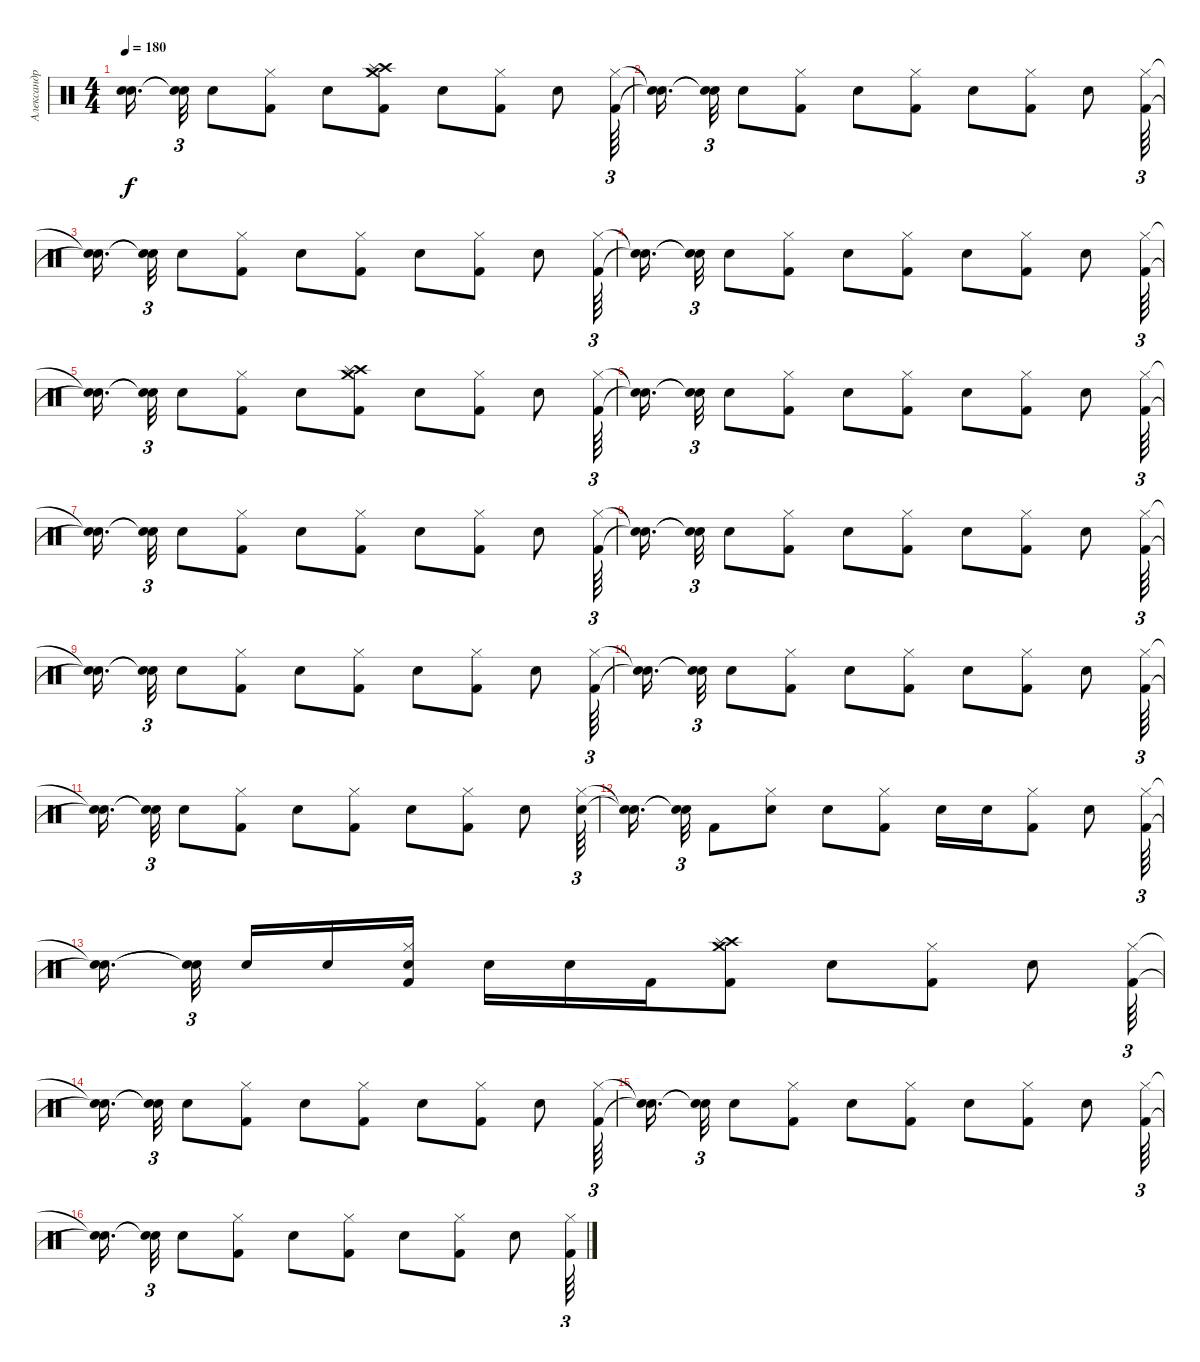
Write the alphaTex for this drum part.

\track ("Александр Карпухин" "Александр ") {instrument percussion}
\staff {score}
\articulation defaults
\ts (4 4)
\tempo 180
\clef neutral
\ks c
("Snare (hit)"{t} "Snare (hit)"{t}).16{d dy f beam splitsecondary} ("Snare (hit)"{t} "Snare (hit)"{t}).32{tu (3 2)} "Snare (hit) 2".8 ("Hi-Hat (closed)" "Kick (hit) 2").8 "Snare (hit) 2".8 ("Crash high (hit)" "Crash medium (hit)" "Splash (hit)" "Kick (hit) 2").8 "Snare (hit) 2".8 ("Hi-Hat (closed)" "Kick (hit) 2").8 "Snare (hit) 2".8 ("Hi-Hat (closed)" "Kick (hit) 2").64{tu (3 2)} |
("Snare (hit)"{t} "Snare (hit)"{t}).16{d beam splitsecondary} ("Snare (hit)"{t} "Snare (hit)"{t}).32{tu (3 2)} "Snare (hit) 2".8 ("Hi-Hat (closed)" "Kick (hit) 2").8 "Snare (hit) 2".8 ("Hi-Hat (closed)" "Kick (hit) 2").8 "Snare (hit) 2".8 ("Hi-Hat (closed)" "Kick (hit) 2").8 "Snare (hit) 2".8 ("Hi-Hat (closed)" "Kick (hit) 2").64{tu (3 2)} |
("Snare (hit)"{t} "Snare (hit)"{t}).16{d beam splitsecondary} ("Snare (hit)"{t} "Snare (hit)"{t}).32{tu (3 2)} "Snare (hit) 2".8 ("Hi-Hat (closed)" "Kick (hit) 2").8 "Snare (hit) 2".8 ("Hi-Hat (closed)" "Kick (hit) 2").8 "Snare (hit) 2".8 ("Hi-Hat (closed)" "Kick (hit) 2").8 "Snare (hit) 2".8 ("Hi-Hat (closed)" "Kick (hit) 2").64{tu (3 2)} |
("Snare (hit)"{t} "Snare (hit)"{t}).16{d beam splitsecondary} ("Snare (hit)"{t} "Snare (hit)"{t}).32{tu (3 2)} "Snare (hit) 2".8 ("Hi-Hat (closed)" "Kick (hit) 2").8 "Snare (hit) 2".8 ("Hi-Hat (closed)" "Kick (hit) 2").8 "Snare (hit) 2".8 ("Hi-Hat (closed)" "Kick (hit) 2").8 "Snare (hit) 2".8 ("Hi-Hat (closed)" "Kick (hit) 2").64{tu (3 2)} |
("Snare (hit)"{t} "Snare (hit)"{t}).16{d beam splitsecondary} ("Snare (hit)"{t} "Snare (hit)"{t}).32{tu (3 2)} "Snare (hit) 2".8 ("Hi-Hat (closed)" "Kick (hit) 2").8 "Snare (hit) 2".8 ("Crash high (hit)" "Crash medium (hit)" "Splash (hit)" "Kick (hit) 2").8 "Snare (hit) 2".8 ("Hi-Hat (closed)" "Kick (hit) 2").8 "Snare (hit) 2".8 ("Hi-Hat (closed)" "Kick (hit) 2").64{tu (3 2)} |
("Snare (hit)"{t} "Snare (hit)"{t}).16{d beam splitsecondary} ("Snare (hit)"{t} "Snare (hit)"{t}).32{tu (3 2)} "Snare (hit) 2".8 ("Hi-Hat (closed)" "Kick (hit) 2").8 "Snare (hit) 2".8 ("Hi-Hat (closed)" "Kick (hit) 2").8 "Snare (hit) 2".8 ("Hi-Hat (closed)" "Kick (hit) 2").8 "Snare (hit) 2".8 ("Hi-Hat (closed)" "Kick (hit) 2").64{tu (3 2)} |
("Snare (hit)"{t} "Snare (hit)"{t}).16{d beam splitsecondary} ("Snare (hit)"{t} "Snare (hit)"{t}).32{tu (3 2)} "Snare (hit) 2".8 ("Hi-Hat (closed)" "Kick (hit) 2").8 "Snare (hit) 2".8 ("Hi-Hat (closed)" "Kick (hit) 2").8 "Snare (hit) 2".8 ("Hi-Hat (closed)" "Kick (hit) 2").8 "Snare (hit) 2".8 ("Hi-Hat (closed)" "Kick (hit) 2").64{tu (3 2)} |
("Snare (hit)"{t} "Snare (hit)"{t}).16{d beam splitsecondary} ("Snare (hit)"{t} "Snare (hit)"{t}).32{tu (3 2)} "Snare (hit) 2".8 ("Hi-Hat (closed)" "Kick (hit) 2").8 "Snare (hit) 2".8 ("Hi-Hat (closed)" "Kick (hit) 2").8 "Snare (hit) 2".8 ("Hi-Hat (closed)" "Kick (hit) 2").8 "Snare (hit) 2".8 ("Hi-Hat (closed)" "Kick (hit) 2").64{tu (3 2)} |
("Snare (hit)"{t} "Snare (hit)"{t}).16{d beam splitsecondary} ("Snare (hit)"{t} "Snare (hit)"{t}).32{tu (3 2)} "Snare (hit) 2".8 ("Hi-Hat (closed)" "Kick (hit) 2").8 "Snare (hit) 2".8 ("Hi-Hat (closed)" "Kick (hit) 2").8 "Snare (hit) 2".8 ("Hi-Hat (closed)" "Kick (hit) 2").8 "Snare (hit) 2".8 ("Hi-Hat (closed)" "Kick (hit) 2").64{tu (3 2)} |
("Snare (hit)"{t} "Snare (hit)"{t}).16{d beam splitsecondary} ("Snare (hit)"{t} "Snare (hit)"{t}).32{tu (3 2)} "Snare (hit) 2".8 ("Hi-Hat (closed)" "Kick (hit) 2").8 "Snare (hit) 2".8 ("Hi-Hat (closed)" "Kick (hit) 2").8 "Snare (hit) 2".8 ("Hi-Hat (closed)" "Kick (hit) 2").8 "Snare (hit) 2".8 ("Hi-Hat (closed)" "Kick (hit) 2").64{tu (3 2)} |
("Snare (hit)"{t} "Snare (hit)"{t}).16{d beam splitsecondary} ("Snare (hit)"{t} "Snare (hit)"{t}).32{tu (3 2)} "Snare (hit) 2".8 ("Hi-Hat (closed)" "Kick (hit) 2").8 "Snare (hit) 2".8 ("Hi-Hat (closed)" "Kick (hit) 2").8 "Snare (hit) 2".8 ("Hi-Hat (closed)" "Kick (hit) 2").8 "Snare (hit) 2".8 ("Hi-Hat (closed)" "Snare (hit) 2").64{tu (3 2)} |
("Snare (hit)"{t} "Snare (hit)"{t}).16{d beam splitsecondary} ("Snare (hit)"{t} "Snare (hit)"{t}).32{tu (3 2)} "Kick (hit) 2".8 ("Hi-Hat (closed)" "Snare (hit) 2").8 "Snare (hit) 2".8 ("Hi-Hat (closed)" "Kick (hit) 2").8 "Snare (hit) 2".16 "Snare (hit) 2".16 ("Hi-Hat (closed)" "Kick (hit) 2").8 "Snare (hit) 2".8 ("Hi-Hat (closed)" "Kick (hit) 2").64{tu (3 2)} |
("Snare (hit)"{t} "Snare (hit)"{t}).16{d beam splitsecondary} ("Snare (hit)"{t} "Snare (hit)"{t}).32{tu (3 2) beam splitsecondary} "Snare (hit) 2".16 "Snare (hit) 2".16 ("Hi-Hat (closed)" "Snare (hit) 2" "Kick (hit) 2").16 "Snare (hit) 2".16 "Snare (hit) 2".16 "Kick (hit) 2".16 ("Crash high (hit)" "Crash medium (hit)" "Splash (hit)" "Kick (hit) 2").8 "Snare (hit) 2".8 ("Hi-Hat (closed)" "Kick (hit) 2").8 "Snare (hit) 2".8 ("Hi-Hat (closed)" "Kick (hit) 2").64{tu (3 2)} |
("Snare (hit)"{t} "Snare (hit)"{t}).16{d beam splitsecondary} ("Snare (hit)"{t} "Snare (hit)"{t}).32{tu (3 2)} "Snare (hit) 2".8 ("Hi-Hat (closed)" "Kick (hit) 2").8 "Snare (hit) 2".8 ("Hi-Hat (closed)" "Kick (hit) 2").8 "Snare (hit) 2".8 ("Hi-Hat (closed)" "Kick (hit) 2").8 "Snare (hit) 2".8 ("Hi-Hat (closed)" "Kick (hit) 2").64{tu (3 2)} |
("Snare (hit)"{t} "Snare (hit)"{t}).16{d beam splitsecondary} ("Snare (hit)"{t} "Snare (hit)"{t}).32{tu (3 2)} "Snare (hit) 2".8 ("Hi-Hat (closed)" "Kick (hit) 2").8 "Snare (hit) 2".8 ("Hi-Hat (closed)" "Kick (hit) 2").8 "Snare (hit) 2".8 ("Hi-Hat (closed)" "Kick (hit) 2").8 "Snare (hit) 2".8 ("Hi-Hat (closed)" "Kick (hit) 2").64{tu (3 2)} |
("Snare (hit)"{t} "Snare (hit)"{t}).16{d beam splitsecondary} ("Snare (hit)"{t} "Snare (hit)"{t}).32{tu (3 2)} "Snare (hit) 2".8 ("Hi-Hat (closed)" "Kick (hit) 2").8 "Snare (hit) 2".8 ("Hi-Hat (closed)" "Kick (hit) 2").8 "Snare (hit) 2".8 ("Hi-Hat (closed)" "Kick (hit) 2").8 "Snare (hit) 2".8 ("Hi-Hat (closed)" "Kick (hit) 2").64{tu (3 2)}
